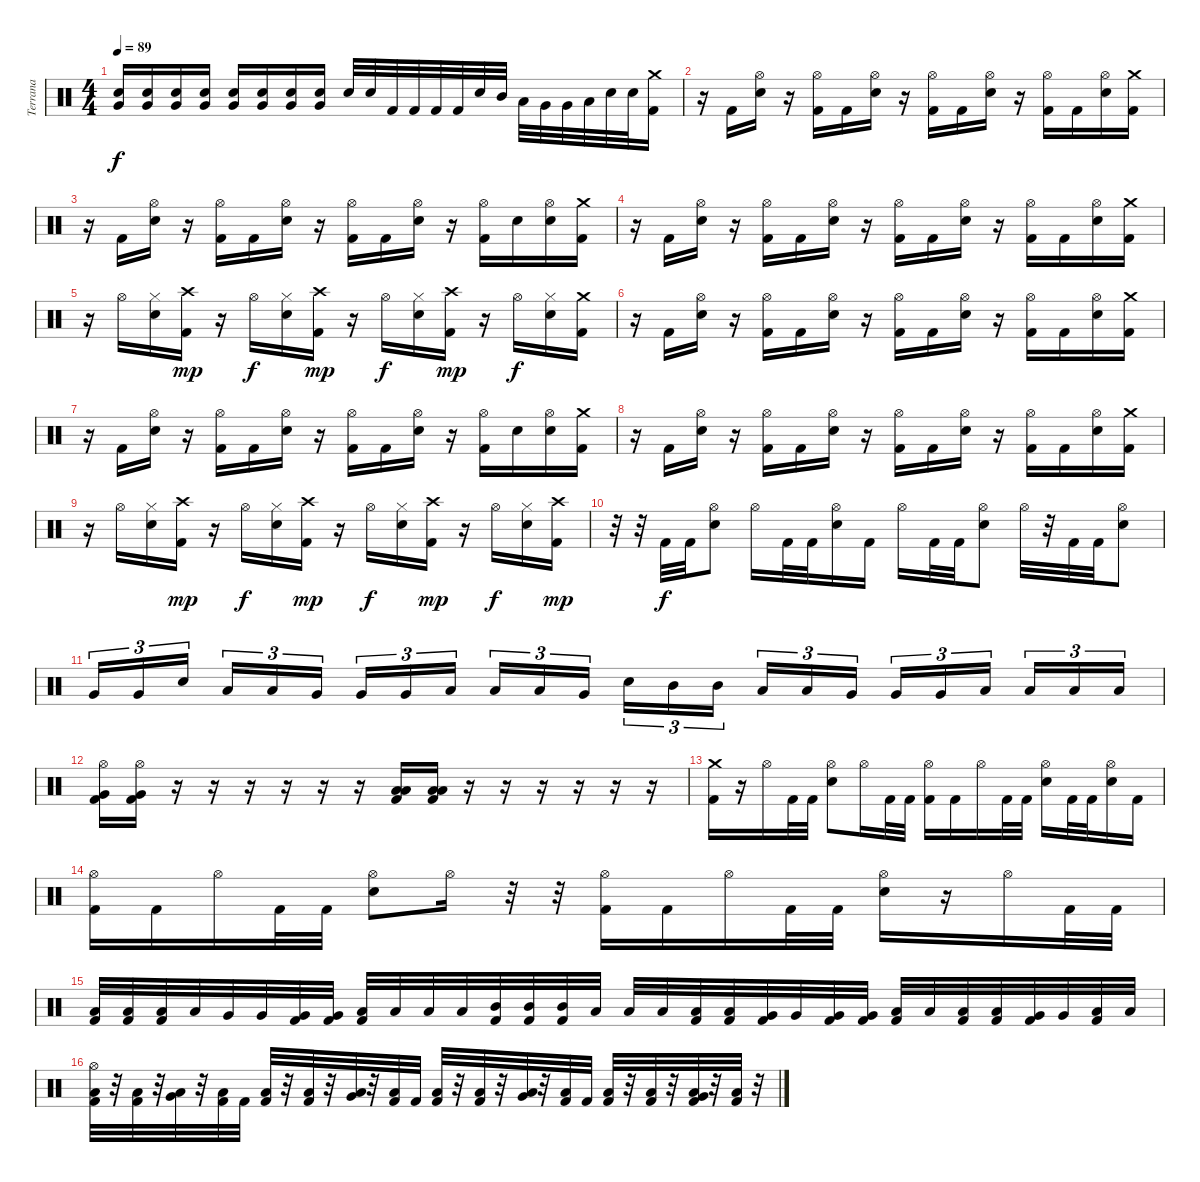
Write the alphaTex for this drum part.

\track ("Terrana" "Terrana") {instrument percussion}
\staff {score}
\articulation defaults
\ts (4 4)
\tempo 89
\clef neutral
\ks c
("Electric Snare (hit)" "Very Low Tom (hit)").16{dy f} ("Electric Snare (hit)" "Very Low Tom (hit)").16 ("Electric Snare (hit)" "Very Low Tom (hit)").16 ("Electric Snare (hit)" "Very Low Tom (hit)").16 ("Electric Snare (hit)" "Very Low Tom (hit)").16 ("Electric Snare (hit)" "Very Low Tom (hit)").16 ("Electric Snare (hit)" "Very Low Tom (hit)").16 ("Electric Snare (hit)" "Very Low Tom (hit)").16 "Electric Snare (hit)".32 "Electric Snare (hit)".32 "Kick (hit) 2".32 "Kick (hit) 2".32 "Kick (hit) 2".32 "Kick (hit) 2".32 "Electric Snare (hit)".32 "Mid Tom (hit)".32 "Low Tom (hit)".32 "Very Low Tom (hit)".32 "Very Low Tom (hit)".32 "Low Floor Tom (hit)".32 "Electric Snare (hit)".32 "Electric Snare (hit)".32 ("Crash medium (hit)" "Kick (hit) 2").16 |
r.16 "Kick (hit) 2".16 ("Hi-Hat (open)" "Electric Snare (hit)").16 r.16 ("Hi-Hat (open)" "Kick (hit) 2").16 "Kick (hit) 2".16 ("Hi-Hat (open)" "Electric Snare (hit)").16 r.16 ("Hi-Hat (open)" "Kick (hit) 2").16 "Kick (hit) 2".16 ("Hi-Hat (open)" "Electric Snare (hit)").16 r.16 ("Hi-Hat (open)" "Kick (hit) 2").16 "Kick (hit) 2".16 ("Hi-Hat (open)" "Electric Snare (hit)").16 ("Crash medium (hit)" "Kick (hit) 2").16 |
r.16 "Kick (hit) 2".16 ("Hi-Hat (open)" "Electric Snare (hit)").16 r.16 ("Hi-Hat (open)" "Kick (hit) 2").16 "Kick (hit) 2".16 ("Hi-Hat (open)" "Electric Snare (hit)").16 r.16 ("Hi-Hat (open)" "Kick (hit) 2").16 "Kick (hit) 2".16 ("Hi-Hat (open)" "Electric Snare (hit)").16 r.16 ("Hi-Hat (open)" "Kick (hit) 2").16 "Electric Snare (hit)".16 ("Hi-Hat (open)" "Electric Snare (hit)").16 ("Crash medium (hit)" "Kick (hit) 2").16 |
r.16 "Kick (hit) 2".16 ("Hi-Hat (open)" "Electric Snare (hit)").16 r.16 ("Hi-Hat (open)" "Kick (hit) 2").16 "Kick (hit) 2".16 ("Hi-Hat (open)" "Electric Snare (hit)").16 r.16 ("Hi-Hat (open)" "Kick (hit) 2").16 "Kick (hit) 2".16 ("Hi-Hat (open)" "Electric Snare (hit)").16 r.16 ("Hi-Hat (open)" "Kick (hit) 2").16 "Kick (hit) 2".16 ("Hi-Hat (open)" "Electric Snare (hit)").16 ("Crash medium (hit)" "Kick (hit) 2").16 |
r.16 "Hi-Hat (open)".16 ("Hi-Hat (closed)" "Electric Snare (hit)").16 ("Crash high (hit)" "Kick (hit) 2").16{dy mp} r.16 "Hi-Hat (open)".16{dy f} ("Hi-Hat (closed)" "Electric Snare (hit)").16 ("Crash high (hit)" "Kick (hit) 2").16{dy mp} r.16 "Hi-Hat (open)".16{dy f} ("Hi-Hat (closed)" "Electric Snare (hit)").16 ("Crash high (hit)" "Kick (hit) 2").16{dy mp} r.16 "Hi-Hat (open)".16{dy f} ("Hi-Hat (closed)" "Electric Snare (hit)").16 ("Crash medium (hit)" "Kick (hit) 2").16 |
r.16 "Kick (hit) 2".16 ("Hi-Hat (open)" "Electric Snare (hit)").16 r.16 ("Hi-Hat (open)" "Kick (hit) 2").16 "Kick (hit) 2".16 ("Hi-Hat (open)" "Electric Snare (hit)").16 r.16 ("Hi-Hat (open)" "Kick (hit) 2").16 "Kick (hit) 2".16 ("Hi-Hat (open)" "Electric Snare (hit)").16 r.16 ("Hi-Hat (open)" "Kick (hit) 2").16 "Kick (hit) 2".16 ("Hi-Hat (open)" "Electric Snare (hit)").16 ("Crash medium (hit)" "Kick (hit) 2").16 |
r.16 "Kick (hit) 2".16 ("Hi-Hat (open)" "Electric Snare (hit)").16 r.16 ("Hi-Hat (open)" "Kick (hit) 2").16 "Kick (hit) 2".16 ("Hi-Hat (open)" "Electric Snare (hit)").16 r.16 ("Hi-Hat (open)" "Kick (hit) 2").16 "Kick (hit) 2".16 ("Hi-Hat (open)" "Electric Snare (hit)").16 r.16 ("Hi-Hat (open)" "Kick (hit) 2").16 "Electric Snare (hit)".16 ("Hi-Hat (open)" "Electric Snare (hit)").16 ("Crash medium (hit)" "Kick (hit) 2").16 |
r.16 "Kick (hit) 2".16 ("Hi-Hat (open)" "Electric Snare (hit)").16 r.16 ("Hi-Hat (open)" "Kick (hit) 2").16 "Kick (hit) 2".16 ("Hi-Hat (open)" "Electric Snare (hit)").16 r.16 ("Hi-Hat (open)" "Kick (hit) 2").16 "Kick (hit) 2".16 ("Hi-Hat (open)" "Electric Snare (hit)").16 r.16 ("Hi-Hat (open)" "Kick (hit) 2").16 "Kick (hit) 2".16 ("Hi-Hat (open)" "Electric Snare (hit)").16 ("Crash medium (hit)" "Kick (hit) 2").16 |
r.16 "Hi-Hat (open)".16 ("Hi-Hat (closed)" "Electric Snare (hit)").16 ("Crash high (hit)" "Kick (hit) 2").16{dy mp} r.16 "Hi-Hat (open)".16{dy f} ("Hi-Hat (closed)" "Electric Snare (hit)").16 ("Crash high (hit)" "Kick (hit) 2").16{dy mp} r.16 "Hi-Hat (open)".16{dy f} ("Hi-Hat (closed)" "Electric Snare (hit)").16 ("Crash high (hit)" "Kick (hit) 2").16{dy mp} r.16 "Hi-Hat (open)".16{dy f} ("Hi-Hat (closed)" "Electric Snare (hit)").16 ("Crash high (hit)" "Kick (hit) 2").16{dy mp} |
r.32 r.32 "Kick (hit) 2".32{dy f} "Kick (hit) 2".32 ("Hi-Hat (open)" "Electric Snare (hit)").8 "Hi-Hat (open)".16 "Kick (hit) 2".32 "Kick (hit) 2".32 ("Hi-Hat (open)" "Electric Snare (hit)").16 "Kick (hit) 2".16 "Hi-Hat (open)".16 "Kick (hit) 2".32 "Kick (hit) 2".32 ("Hi-Hat (open)" "Electric Snare (hit)").8 "Hi-Hat (open)".32 r.32 "Kick (hit) 2".32 "Kick (hit) 2".32 ("Hi-Hat (open)" "Electric Snare (hit)").8 |
"Very Low Tom (hit)".16{tu (3 2)} "Very Low Tom (hit)".16{tu (3 2)} "Electric Snare (hit)".16{tu (3 2) beam splitsecondary} "Low Tom (hit)".16{tu (3 2)} "Low Tom (hit)".16{tu (3 2)} "Very Low Tom (hit)".16{tu (3 2)} "Very Low Tom (hit)".16{tu (3 2)} "Very Low Tom (hit)".16{tu (3 2)} "Low Floor Tom (hit)".16{tu (3 2) beam splitsecondary} "Low Floor Tom (hit)".16{tu (3 2)} "Low Floor Tom (hit)".16{tu (3 2)} "Very Low Tom (hit)".16{tu (3 2)} "Electric Snare (hit)".16{tu (3 2)} "Mid Tom (hit)".16{tu (3 2)} "Mid Tom (hit)".16{tu (3 2) beam splitsecondary} "Low Tom (hit)".16{tu (3 2)} "Low Tom (hit)".16{tu (3 2)} "Very Low Tom (hit)".16{tu (3 2)} "Very Low Tom (hit)".16{tu (3 2)} "Very Low Tom (hit)".16{tu (3 2)} "Low Floor Tom (hit)".16{tu (3 2) beam splitsecondary} "Low Floor Tom (hit)".16{tu (3 2)} "Low Floor Tom (hit)".16{tu (3 2)} "Low Floor Tom (hit)".16{tu (3 2)} |
("Hi-Hat (open)" "Very Low Tom (hit)" "Kick (hit) 2").16 ("Hi-Hat (open)" "Very Low Tom (hit)" "Kick (hit) 2").16 r.16 r.16 r.16 r.16 r.16 r.16 ("Low Tom (hit)" "Low Floor Tom (hit)" "Kick (hit) 2").16 ("Low Tom (hit)" "Low Floor Tom (hit)" "Kick (hit) 2").16 r.16 r.16 r.16 r.16 r.16 r.16 |
("Crash medium (hit)" "Kick (hit) 2").16 r.16 "Hi-Hat (open)".16 "Kick (hit) 2".32 "Kick (hit) 2".32 ("Hi-Hat (open)" "Electric Snare (hit)").8 "Hi-Hat (open)".16 "Kick (hit) 2".32 "Kick (hit) 2".32 ("Hi-Hat (open)" "Kick (hit) 2").16 "Kick (hit) 2".16 "Hi-Hat (open)".16 "Kick (hit) 2".32 "Kick (hit) 2".32 ("Hi-Hat (open)" "Electric Snare (hit)").16 "Kick (hit) 2".32 "Kick (hit) 2".32 ("Hi-Hat (open)" "Electric Snare (hit)").16 "Kick (hit) 2".16 |
("Hi-Hat (open)" "Kick (hit) 2").16 "Kick (hit) 2".16 "Hi-Hat (open)".16 "Kick (hit) 2".32 "Kick (hit) 2".32 ("Hi-Hat (open)" "Electric Snare (hit)").8 "Hi-Hat (open)".16 r.32 r.32 ("Hi-Hat (open)" "Kick (hit) 2").16 "Kick (hit) 2".16 "Hi-Hat (open)".16 "Kick (hit) 2".32 "Kick (hit) 2".32 ("Hi-Hat (open)" "Electric Snare (hit)").16 r.16 "Hi-Hat (open)".16 "Kick (hit) 2".32 "Kick (hit) 2".32 |
("Low Floor Tom (hit)" "Kick (hit) 2").32 ("Low Floor Tom (hit)" "Kick (hit) 2").32 ("Low Floor Tom (hit)" "Kick (hit) 2").32 "Low Floor Tom (hit)".32 "Very Low Tom (hit)".32 "Very Low Tom (hit)".32 ("Very Low Tom (hit)" "Kick (hit) 2").32 ("Very Low Tom (hit)" "Kick (hit) 2").32 ("Low Tom (hit)" "Kick (hit) 2").32 "Low Tom (hit)".32 "Low Tom (hit)".32 "Low Tom (hit)".32 ("Mid Tom (hit)" "Kick (hit) 2").32 ("Mid Tom (hit)" "Kick (hit) 2").32 ("Mid Tom (hit)" "Kick (hit) 2").32 "Low Tom (hit)".32 "Low Tom (hit)".32 "Low Tom (hit)".32 ("Low Tom (hit)" "Kick (hit) 2").32 ("Low Tom (hit)" "Kick (hit) 2").32 ("Very Low Tom (hit)" "Kick (hit) 2").32 "Very Low Tom (hit)".32 ("Very Low Tom (hit)" "Kick (hit) 2").32 ("Very Low Tom (hit)" "Kick (hit) 2").32 ("Low Floor Tom (hit)" "Kick (hit) 2").32 "Low Floor Tom (hit)".32 ("Low Floor Tom (hit)" "Kick (hit) 2").32 ("Low Floor Tom (hit)" "Kick (hit) 2").32 ("Very Low Tom (hit)" "Kick (hit) 2").32 "Very Low Tom (hit)".32 ("Low Floor Tom (hit)" "Kick (hit) 2").32 "Low Floor Tom (hit)".32 |
("Hi-Hat (open)" "Low Floor Tom (hit)" "Kick (hit) 2").32 r.32 ("Low Floor Tom (hit)" "Kick (hit) 2").32 r.32 ("Very Low Tom (hit)" "Low Floor Tom (hit)").32 r.32 ("Low Floor Tom (hit)" "Kick (hit) 2").32 "Kick (hit) 2".32 ("Low Floor Tom (hit)" "Kick (hit) 2").32 r.32 ("Low Floor Tom (hit)" "Kick (hit) 2").32 r.32 ("Very Low Tom (hit)" "Low Floor Tom (hit)").32 r.32 ("Low Floor Tom (hit)" "Kick (hit) 2").32 "Kick (hit) 2".32 ("Low Floor Tom (hit)" "Kick (hit) 2").32 r.32 ("Low Floor Tom (hit)" "Kick (hit) 2").32 r.32 ("Very Low Tom (hit)" "Low Floor Tom (hit)").32 r.32 ("Low Floor Tom (hit)" "Kick (hit) 2").32 "Kick (hit) 2".32 ("Low Floor Tom (hit)" "Kick (hit) 2").32 r.32 ("Low Floor Tom (hit)" "Kick (hit) 2").32 r.32 ("Very Low Tom (hit)" "Low Floor Tom (hit)" "Kick (hit) 2").32 r.32 ("Low Floor Tom (hit)" "Kick (hit) 2").32 r.32
